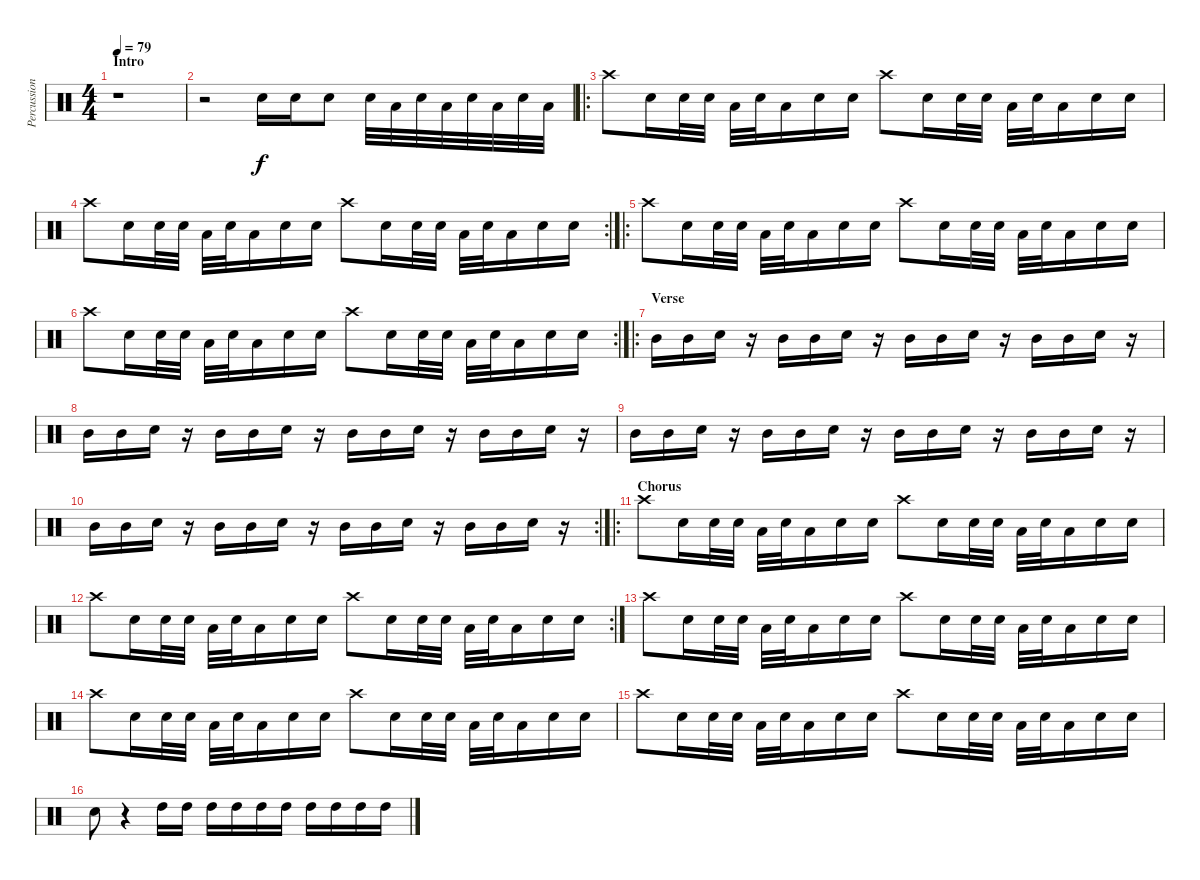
\track ("Percussion" "Percussion") {instrument percussion}
\staff {score}
\articulation defaults
\ts (4 4)
\section ("" "Intro")
\tempo 79
\clef neutral
\ks c
r.1{dy f} |
r.2 "Snare (hit) 2".16 "Snare (hit) 2".16 "Snare (hit) 2".8 "Snare (hit) 2".32 "Low Floor Tom (hit)".32 "Snare (hit) 2".32 "Low Floor Tom (hit)".32 "Snare (hit) 2".32 "Low Floor Tom (hit)".32 "Snare (hit) 2".32 "Low Floor Tom (hit)".32 |
\ro "Crash high (hit)".8 "Snare (hit) 2".16 "Snare (hit) 2".32 "Snare (hit) 2".32 "Low Floor Tom (hit)".32 "Snare (hit) 2".32 "Low Floor Tom (hit)".16 "Snare (hit) 2".16 "Electric Snare (hit)".16 "Crash high (hit)".8 "Snare (hit) 2".16 "Snare (hit) 2".32 "Snare (hit) 2".32 "Low Floor Tom (hit)".32 "Snare (hit) 2".32 "Low Floor Tom (hit)".16 "Snare (hit) 2".16 "Electric Snare (hit)".16
|
\rc 2 "Crash high (hit)".8 "Snare (hit) 2".16 "Snare (hit) 2".32 "Snare (hit) 2".32 "Low Floor Tom (hit)".32 "Snare (hit) 2".32 "Low Floor Tom (hit)".16 "Snare (hit) 2".16 "Electric Snare (hit)".16 "Crash high (hit)".8 "Snare (hit) 2".16 "Snare (hit) 2".32 "Snare (hit) 2".32 "Low Floor Tom (hit)".32 "Snare (hit) 2".32 "Low Floor Tom (hit)".16 "Snare (hit) 2".16 "Electric Snare (hit)".16
|
\ro "Crash high (hit)".8 "Snare (hit) 2".16 "Snare (hit) 2".32 "Snare (hit) 2".32 "Low Floor Tom (hit)".32 "Snare (hit) 2".32 "Low Floor Tom (hit)".16 "Snare (hit) 2".16 "Electric Snare (hit)".16 "Crash high (hit)".8 "Snare (hit) 2".16 "Snare (hit) 2".32 "Snare (hit) 2".32 "Low Floor Tom (hit)".32 "Snare (hit) 2".32 "Low Floor Tom (hit)".16 "Snare (hit) 2".16 "Electric Snare (hit)".16
|
\rc 2 "Crash high (hit)".8 "Snare (hit) 2".16 "Snare (hit) 2".32 "Snare (hit) 2".32 "Low Floor Tom (hit)".32 "Snare (hit) 2".32 "Low Floor Tom (hit)".16 "Snare (hit) 2".16 "Electric Snare (hit)".16 "Crash high (hit)".8 "Snare (hit) 2".16 "Snare (hit) 2".32 "Snare (hit) 2".32 "Low Floor Tom (hit)".32 "Snare (hit) 2".32 "Low Floor Tom (hit)".16 "Snare (hit) 2".16 "Electric Snare (hit)".16
|
\ro
\section ("" "Verse")
"Mid Tom (hit)".16 "Mid Tom (hit)".16 "Snare (hit) 2".16 r.16 "Mid Tom (hit)".16 "Mid Tom (hit)".16 "Snare (hit) 2".16 r.16 "Mid Tom (hit)".16 "Mid Tom (hit)".16 "Snare (hit) 2".16 r.16 "Mid Tom (hit)".16 "Mid Tom (hit)".16 "Snare (hit) 2".16 r.16 |
"Mid Tom (hit)".16 "Mid Tom (hit)".16 "Snare (hit) 2".16 r.16 "Mid Tom (hit)".16 "Mid Tom (hit)".16 "Snare (hit) 2".16 r.16 "Mid Tom (hit)".16 "Mid Tom (hit)".16 "Snare (hit) 2".16 r.16 "Mid Tom (hit)".16 "Mid Tom (hit)".16 "Snare (hit) 2".16 r.16 |
"Mid Tom (hit)".16 "Mid Tom (hit)".16 "Snare (hit) 2".16 r.16 "Mid Tom (hit)".16 "Mid Tom (hit)".16 "Snare (hit) 2".16 r.16 "Mid Tom (hit)".16 "Mid Tom (hit)".16 "Snare (hit) 2".16 r.16 "Mid Tom (hit)".16 "Mid Tom (hit)".16 "Snare (hit) 2".16 r.16 |
\rc 2 "Mid Tom (hit)".16 "Mid Tom (hit)".16 "Snare (hit) 2".16
r.16 "Mid Tom (hit)".16 "Mid Tom (hit)".16 "Snare (hit) 2".16 r.16 "Mid Tom (hit)".16 "Mid Tom (hit)".16 "Snare (hit) 2".16 r.16 "Mid Tom (hit)".16 "Mid Tom (hit)".16 "Snare (hit) 2".16 r.16 |
\ro
\section ("" "Chorus")
"Crash high (hit)".8 "Snare (hit) 2".16 "Snare (hit) 2".32 "Snare (hit) 2".32 "Low Floor Tom (hit)".32 "Snare (hit) 2".32 "Low Floor Tom (hit)".16 "Snare (hit) 2".16 "Electric Snare (hit)".16 "Crash high (hit)".8 "Snare (hit) 2".16 "Snare (hit) 2".32 "Snare (hit) 2".32 "Low Floor Tom (hit)".32 "Snare (hit) 2".32 "Low Floor Tom (hit)".16 "Snare (hit) 2".16 "Electric Snare (hit)".16 |
\rc 2 "Crash high (hit)".8 "Snare (hit) 2".16 "Snare (hit) 2".32 "Snare (hit) 2".32 "Low Floor Tom (hit)".32 "Snare (hit) 2".32 "Low Floor Tom (hit)".16 "Snare (hit) 2".16 "Electric Snare (hit)".16 "Crash high (hit)".8 "Snare (hit) 2".16 "Snare (hit) 2".32 "Snare (hit) 2".32 "Low Floor Tom (hit)".32 "Snare (hit) 2".32 "Low Floor Tom (hit)".16 "Snare (hit) 2".16 "Electric Snare (hit)".16
|
"Crash high (hit)".8 "Snare (hit) 2".16 "Snare (hit) 2".32 "Snare (hit) 2".32 "Low Floor Tom (hit)".32 "Snare (hit) 2".32 "Low Floor Tom (hit)".16 "Snare (hit) 2".16 "Electric Snare (hit)".16 "Crash high (hit)".8 "Snare (hit) 2".16 "Snare (hit) 2".32 "Snare (hit) 2".32 "Low Floor Tom (hit)".32 "Snare (hit) 2".32 "Low Floor Tom (hit)".16 "Snare (hit) 2".16 "Electric Snare (hit)".16 |
"Crash high (hit)".8 "Snare (hit) 2".16 "Snare (hit) 2".32 "Snare (hit) 2".32 "Low Floor Tom (hit)".32 "Snare (hit) 2".32 "Low Floor Tom (hit)".16 "Snare (hit) 2".16 "Electric Snare (hit)".16 "Crash high (hit)".8 "Snare (hit) 2".16 "Snare (hit) 2".32 "Snare (hit) 2".32 "Low Floor Tom (hit)".32 "Snare (hit) 2".32 "Low Floor Tom (hit)".16 "Snare (hit) 2".16 "Electric Snare (hit)".16 |
"Crash high (hit)".8 "Snare (hit) 2".16 "Snare (hit) 2".32 "Snare (hit) 2".32 "Low Floor Tom (hit)".32 "Snare (hit) 2".32 "Low Floor Tom (hit)".16 "Snare (hit) 2".16 "Electric Snare (hit)".16 "Crash high (hit)".8 "Snare (hit) 2".16 "Snare (hit) 2".32 "Snare (hit) 2".32 "Low Floor Tom (hit)".32 "Snare (hit) 2".32 "Low Floor Tom (hit)".16 "Snare (hit) 2".16 "Electric Snare (hit)".16 |
"Snare (hit) 2".8 r.4 "High Tom (hit)".16 "High Tom (hit)".16 "High Tom (hit)".16 "High Tom (hit)".16 "High Tom (hit)".16 "High Tom (hit)".16 "High Tom (hit)".16 "High Tom (hit)".16 "High Tom (hit)".16 "High Tom (hit)".16
